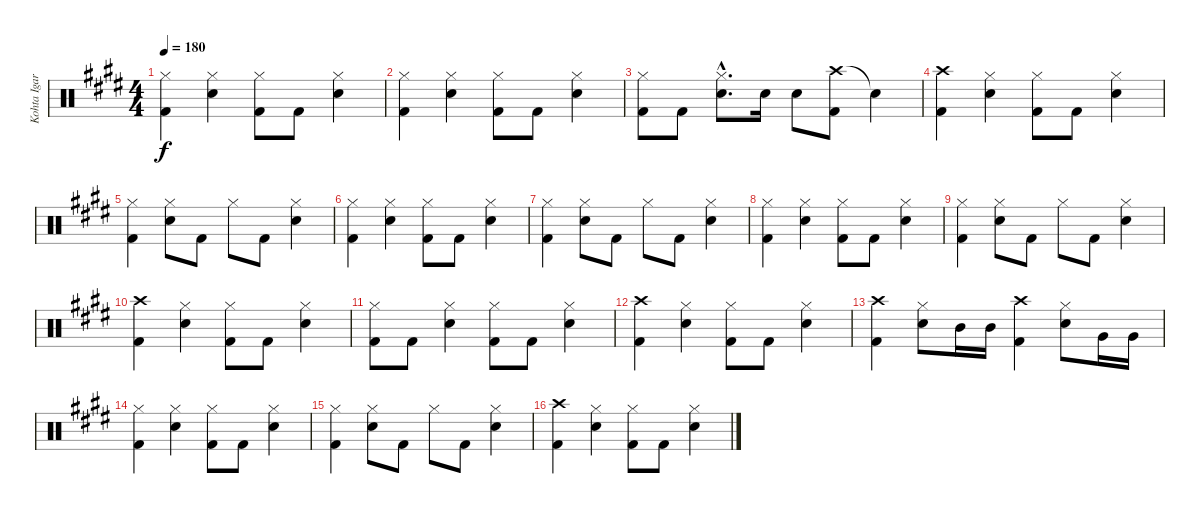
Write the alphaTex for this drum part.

\track ("Kohta Igarashi" "Kohta Igar") {instrument percussion}
\staff {score}
\articulation defaults
\ts (4 4)
\tempo 180
\clef neutral
\ks e
("Hi-Hat (closed)" "Kick (hit) 2").4{dy f} ("Hi-Hat (closed)" "Electric Snare (hit)").4 ("Hi-Hat (closed)" "Kick (hit) 2").8 "Kick (hit) 2".8 ("Hi-Hat (closed)" "Electric Snare (hit)").4 |
("Hi-Hat (closed)" "Kick (hit) 2").4 ("Hi-Hat (closed)" "Electric Snare (hit)").4 ("Hi-Hat (closed)" "Kick (hit) 2").8 "Kick (hit) 2".8 ("Hi-Hat (closed)" "Electric Snare (hit)").4 |
("Hi-Hat (closed)" "Kick (hit) 2").8 "Kick (hit) 2".8 ("Hi-Hat (closed)"{hac} "Electric Snare (hit)"{hac}).8{d} "Electric Snare (hit)".16 "Electric Snare (hit)".8 ("Crash high (hit)" "Kick (hit) 2").8 "Snare (hit)"{t}.4 |
("Crash high (hit)" "Kick (hit) 2").4 ("Hi-Hat (closed)" "Electric Snare (hit)").4 ("Hi-Hat (closed)" "Kick (hit) 2").8 "Kick (hit) 2".8 ("Hi-Hat (closed)" "Electric Snare (hit)").4 |
("Hi-Hat (closed)" "Kick (hit) 2").4 ("Hi-Hat (closed)" "Electric Snare (hit)").8 "Kick (hit) 2".8 "Hi-Hat (closed)".8 "Kick (hit) 2".8 ("Hi-Hat (closed)" "Electric Snare (hit)").4 |
("Hi-Hat (closed)" "Kick (hit) 2").4 ("Hi-Hat (closed)" "Electric Snare (hit)").4 ("Hi-Hat (closed)" "Kick (hit) 2").8 "Kick (hit) 2".8 ("Hi-Hat (closed)" "Electric Snare (hit)").4 |
("Hi-Hat (closed)" "Kick (hit) 2").4 ("Hi-Hat (closed)" "Electric Snare (hit)").8 "Kick (hit) 2".8 "Hi-Hat (closed)".8 "Kick (hit) 2".8 ("Hi-Hat (closed)" "Electric Snare (hit)").4 |
("Hi-Hat (closed)" "Kick (hit) 2").4 ("Hi-Hat (closed)" "Electric Snare (hit)").4 ("Hi-Hat (closed)" "Kick (hit) 2").8 "Kick (hit) 2".8 ("Hi-Hat (closed)" "Electric Snare (hit)").4 |
("Hi-Hat (closed)" "Kick (hit) 2").4 ("Hi-Hat (closed)" "Electric Snare (hit)").8 "Kick (hit) 2".8 "Hi-Hat (closed)".8 "Kick (hit) 2".8 ("Hi-Hat (closed)" "Electric Snare (hit)").4 |
("Crash high (hit)" "Kick (hit) 2").4 ("Hi-Hat (closed)" "Electric Snare (hit)").4 ("Hi-Hat (closed)" "Kick (hit) 2").8 "Kick (hit) 2".8 ("Hi-Hat (closed)" "Electric Snare (hit)").4 |
("Hi-Hat (closed)" "Kick (hit) 2").8 "Kick (hit) 2".8 ("Hi-Hat (closed)" "Electric Snare (hit)").4 ("Hi-Hat (closed)" "Kick (hit) 2").8 "Kick (hit) 2".8 ("Hi-Hat (closed)" "Electric Snare (hit)").4 |
("Crash high (hit)" "Kick (hit) 2").4 ("Hi-Hat (closed)" "Electric Snare (hit)").4 ("Hi-Hat (closed)" "Kick (hit) 2").8 "Kick (hit) 2".8 ("Hi-Hat (closed)" "Electric Snare (hit)").4 |
("Crash high (hit)" "Kick (hit) 2").4 ("Hi-Hat (closed)" "Electric Snare (hit)").8 "Mid Tom (hit)".16 "Mid Tom (hit)".16 ("Crash high (hit)" "Kick (hit) 2").4 ("Hi-Hat (closed)" "Electric Snare (hit)").8 "Very Low Tom (hit)".16 "Very Low Tom (hit)".16 |
("Hi-Hat (closed)" "Kick (hit) 2").4 ("Hi-Hat (closed)" "Electric Snare (hit)").4 ("Hi-Hat (closed)" "Kick (hit) 2").8 "Kick (hit) 2".8 ("Hi-Hat (closed)" "Electric Snare (hit)").4 |
("Hi-Hat (closed)" "Kick (hit) 2").4 ("Hi-Hat (closed)" "Electric Snare (hit)").8 "Kick (hit) 2".8 "Hi-Hat (closed)".8 "Kick (hit) 2".8 ("Hi-Hat (closed)" "Electric Snare (hit)").4 |
("Crash high (hit)" "Kick (hit) 2").4 ("Hi-Hat (closed)" "Electric Snare (hit)").4 ("Hi-Hat (closed)" "Kick (hit) 2").8 "Kick (hit) 2".8 ("Hi-Hat (closed)" "Electric Snare (hit)").4
